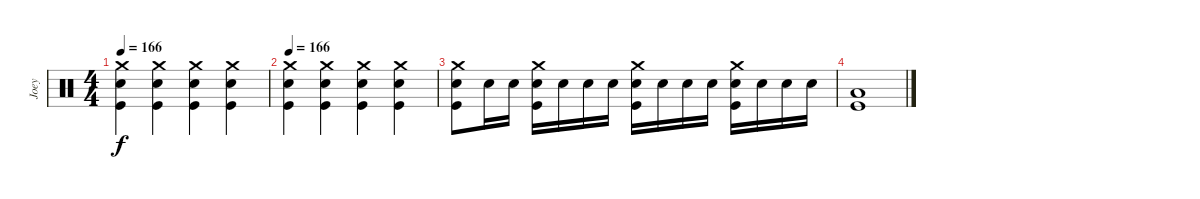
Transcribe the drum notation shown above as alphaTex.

\track ("Joey" "Joey") {instrument percussion}
\staff {score}
\articulation defaults
\ts (4 4)
\tempo 166
\clef neutral
\ks c
("Crash medium (hit)" "Kick (hit)" "Electric Snare (hit)").4{dy f} ("Crash medium (hit)" "Kick (hit)" "Electric Snare (hit)").4 ("Crash medium (hit)" "Kick (hit)" "Electric Snare (hit)").4 ("Crash medium (hit)" "Kick (hit)" "Electric Snare (hit)").4 |
\tempo 166
("Crash medium (hit)" "Kick (hit)" "Electric Snare (hit)").4 ("Crash medium (hit)" "Kick (hit)" "Electric Snare (hit)").4 ("Crash medium (hit)" "Kick (hit)" "Electric Snare (hit)").4 ("Crash medium (hit)" "Kick (hit)" "Electric Snare (hit)").4 |
("Crash medium (hit)" "Kick (hit)" "Electric Snare (hit)").8 "Electric Snare (hit)".16 "Electric Snare (hit)".16 ("Crash medium (hit)" "Kick (hit)" "Electric Snare (hit)").16 "Electric Snare (hit)".16 "Electric Snare (hit)".16 "Electric Snare (hit)".16 ("Crash medium (hit)" "Kick (hit)" "Electric Snare (hit)").16 "Electric Snare (hit)".16 "Electric Snare (hit)".16 "Electric Snare (hit)".16 ("Crash medium (hit)" "Kick (hit)" "Electric Snare (hit)").16 "Electric Snare (hit)".16 "Electric Snare (hit)".16 "Electric Snare (hit)".16 |
("Kick (hit)" "Low Floor Tom (hit)").1
